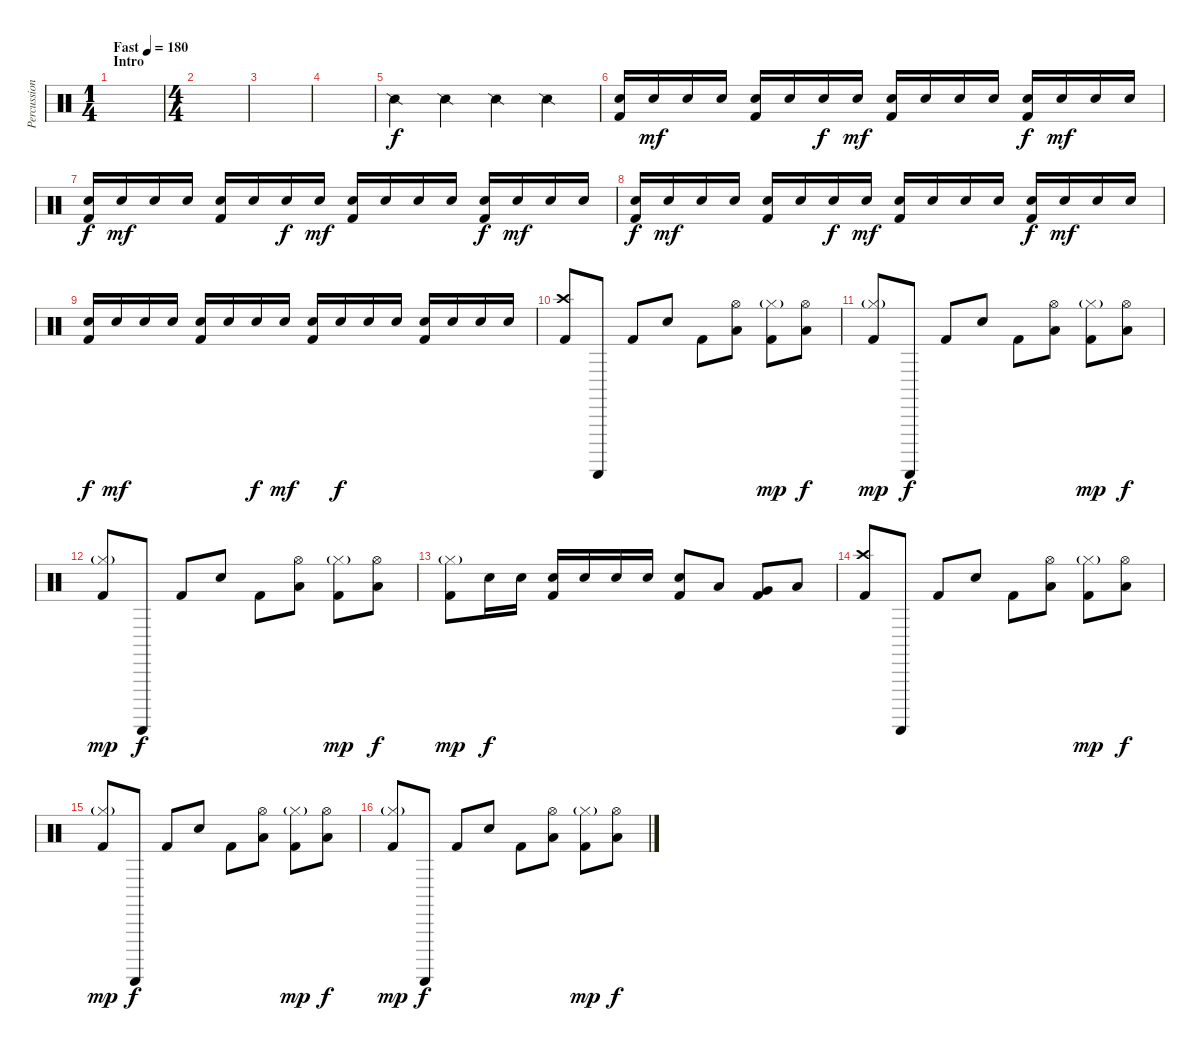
\track ("Percussion" "Percussion") {instrument percussion}
\staff {score}
\articulation defaults
\ts (1 4)
\section ("" "Intro")
\tempo (180 "Fast")
\clef neutral
\ks c
|
\ts (4 4)
|
|
|
"Snare (side stick) 2".4 "Snare (side stick) 2".4 "Snare (side stick) 2".4 "Snare (side stick) 2".4 |
("Snare (hit) 2" "Kick (hit) 2").16 "Snare (hit) 2".16{dy mf} "Snare (hit) 2".16 "Snare (hit) 2".16 ("Snare (hit) 2" "Kick (hit) 2").16 "Snare (hit) 2".16 "Snare (hit) 2".16{dy f} "Snare (hit) 2".16{dy mf} ("Snare (hit) 2" "Kick (hit) 2").16 "Snare (hit) 2".16 "Snare (hit) 2".16 "Snare (hit) 2".16 ("Snare (hit) 2" "Kick (hit) 2").16{dy f} "Snare (hit) 2".16{dy mf} "Snare (hit) 2".16 "Snare (hit) 2".16 |
("Snare (hit) 2" "Kick (hit) 2").16{dy f} "Snare (hit) 2".16{dy mf} "Snare (hit) 2".16 "Snare (hit) 2".16 ("Snare (hit) 2" "Kick (hit) 2").16 "Snare (hit) 2".16 "Snare (hit) 2".16{dy f} "Snare (hit) 2".16{dy mf} ("Snare (hit) 2" "Kick (hit) 2").16 "Snare (hit) 2".16 "Snare (hit) 2".16 "Snare (hit) 2".16 ("Snare (hit) 2" "Kick (hit) 2").16{dy f} "Snare (hit) 2".16{dy mf} "Snare (hit) 2".16 "Snare (hit) 2".16 |
("Snare (hit) 2" "Kick (hit) 2").16{dy f} "Snare (hit) 2".16{dy mf} "Snare (hit) 2".16 "Snare (hit) 2".16 ("Snare (hit) 2" "Kick (hit) 2").16 "Snare (hit) 2".16 "Snare (hit) 2".16{dy f} "Snare (hit) 2".16{dy mf} ("Snare (hit) 2" "Kick (hit) 2").16 "Snare (hit) 2".16 "Snare (hit) 2".16 "Snare (hit) 2".16 ("Snare (hit) 2" "Kick (hit) 2").16{dy f} "Snare (hit) 2".16{dy mf} "Snare (hit) 2".16 "Snare (hit) 2".16 |
("Snare (hit) 2" "Kick (hit) 2").16{dy f} "Snare (hit) 2".16{dy mf} "Snare (hit) 2".16 "Snare (hit) 2".16 ("Snare (hit) 2" "Kick (hit) 2").16 "Snare (hit) 2".16 "Snare (hit) 2".16{dy f} "Snare (hit) 2".16{dy mf} ("Snare (hit) 2" "Kick (hit) 2").16 "Snare (hit) 2".16{dy f} "Snare (hit) 2".16 "Snare (hit) 2".16 ("Snare (hit) 2" "Kick (hit) 2").16 "Snare (hit) 2".16 "Snare (hit) 2".16 "Snare (hit) 2".16 |
("Crash high (hit)" "Kick (hit) 2").8 "Guiro (scrap-return)".8 "Kick (hit) 2".8 "Snare (hit) 2".8 "Kick (hit) 2".8 ("Hi-Hat (open)" "Low Tom (hit)").8 ("Hi-Hat (closed)"{g} "Kick (hit) 2").8{dy mp} ("Hi-Hat (open)" "Low Tom (hit)").8{dy f} |
("Hi-Hat (closed)"{g} "Kick (hit) 2").8{dy mp} "Guiro (scrap-return)".8{dy f} "Kick (hit) 2".8 "Snare (hit) 2".8 "Kick (hit) 2".8 ("Hi-Hat (open)" "Low Tom (hit)").8 ("Hi-Hat (closed)"{g} "Kick (hit) 2").8{dy mp} ("Hi-Hat (open)" "Low Tom (hit)").8{dy f} |
("Hi-Hat (closed)"{g} "Kick (hit) 2").8{dy mp} "Guiro (scrap-return)".8{dy f} "Kick (hit) 2".8 "Snare (hit) 2".8 "Kick (hit) 2".8 ("Hi-Hat (open)" "Low Tom (hit)").8 ("Hi-Hat (closed)"{g} "Kick (hit) 2").8{dy mp} ("Hi-Hat (open)" "Low Tom (hit)").8{dy f} |
("Hi-Hat (closed)"{g} "Kick (hit) 2").8{dy mp} "Snare (hit) 2".16{dy f} "Snare (hit) 2".16 ("Snare (hit) 2" "Kick (hit) 2").16 "Snare (hit) 2".16 "Snare (hit) 2".16 "Snare (hit) 2".16 ("Snare (hit) 2" "Kick (hit) 2").8 "Low Tom (hit)".8 ("Very Low Tom (hit)" "Kick (hit) 2").8 "Low Floor Tom (hit)".8 |
("Crash high (hit)" "Kick (hit) 2").8 "Guiro (scrap-return)".8 "Kick (hit) 2".8 "Snare (hit) 2".8 "Kick (hit) 2".8 ("Hi-Hat (open)" "Low Tom (hit)").8 ("Hi-Hat (closed)"{g} "Kick (hit) 2").8{dy mp} ("Hi-Hat (open)" "Low Tom (hit)").8{dy f} |
("Hi-Hat (closed)"{g} "Kick (hit) 2").8{dy mp} "Guiro (scrap-return)".8{dy f} "Kick (hit) 2".8 "Snare (hit) 2".8 "Kick (hit) 2".8 ("Hi-Hat (open)" "Low Tom (hit)").8 ("Hi-Hat (closed)"{g} "Kick (hit) 2").8{dy mp} ("Hi-Hat (open)" "Low Tom (hit)").8{dy f} |
("Hi-Hat (closed)"{g} "Kick (hit) 2").8{dy mp} "Guiro (scrap-return)".8{dy f} "Kick (hit) 2".8 "Snare (hit) 2".8 "Kick (hit) 2".8 ("Hi-Hat (open)" "Low Tom (hit)").8 ("Hi-Hat (closed)"{g} "Kick (hit) 2").8{dy mp} ("Hi-Hat (open)" "Low Tom (hit)").8{dy f}
